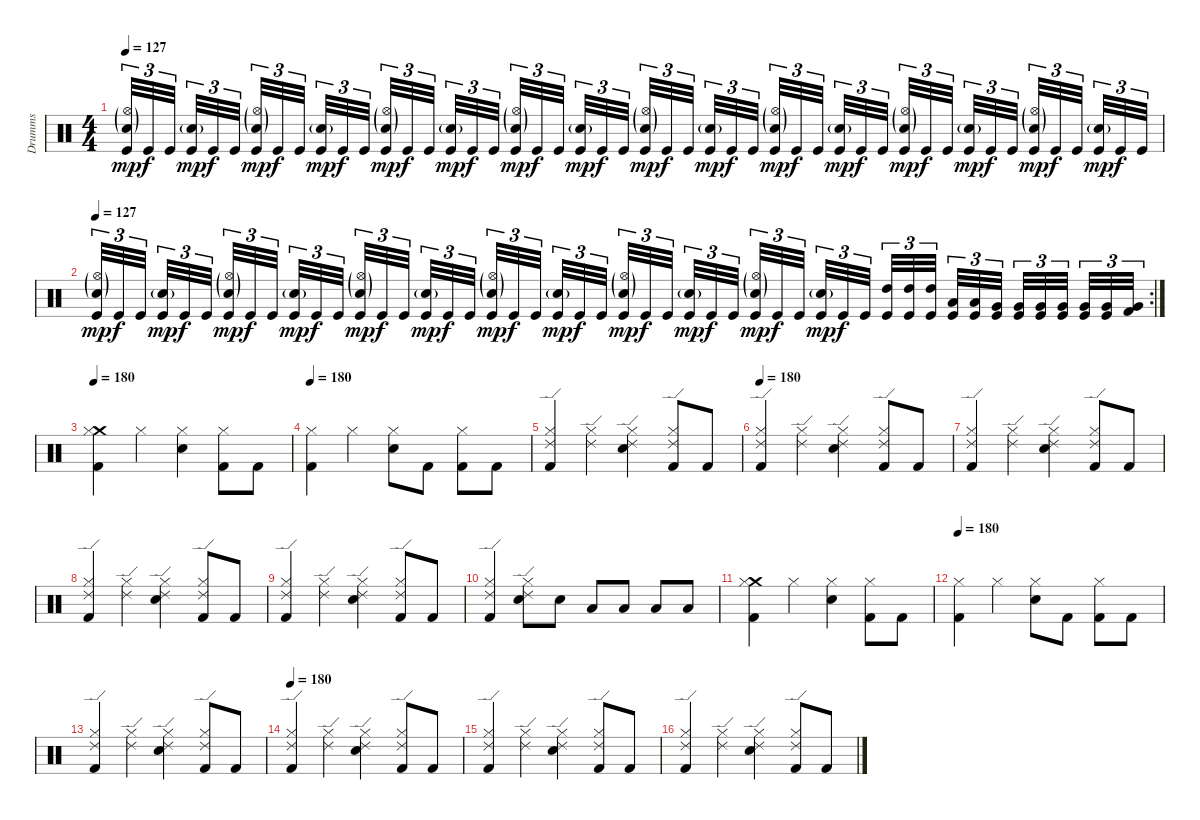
\track ("Drumms" "Drumms") {instrument percussion}
\staff {score}
\articulation defaults
\ts (4 4)
\tempo 127
\clef neutral
\ks c
("Kick (hit)" "Hi-Hat (open)"{g} "Snare (hit) 2"{g}).32{tu (3 2) dy mp} "Kick (hit)".32{tu (3 2) dy f} "Kick (hit)".32{tu (3 2)} ("Kick (hit)" "Snare (hit) 2"{g}).32{tu (3 2) dy mp} "Kick (hit)".32{tu (3 2) dy f} "Kick (hit)".32{tu (3 2)} ("Kick (hit)" "Hi-Hat (open)"{g} "Snare (hit) 2"{g}).32{tu (3 2) dy mp} "Kick (hit)".32{tu (3 2) dy f} "Kick (hit)".32{tu (3 2)} ("Kick (hit)" "Snare (hit) 2"{g}).32{tu (3 2) dy mp} "Kick (hit)".32{tu (3 2) dy f} "Kick (hit)".32{tu (3 2)} ("Kick (hit)" "Snare (hit) 2"{g} "Hi-Hat (open)"{g}).32{tu (3 2) dy mp} "Kick (hit)".32{tu (3 2) dy f} "Kick (hit)".32{tu (3 2)} ("Kick (hit)" "Snare (hit) 2"{g}).32{tu (3 2) dy mp} "Kick (hit)".32{tu (3 2) dy f} "Kick (hit)".32{tu (3 2)} ("Kick (hit)" "Hi-Hat (open)"{g} "Snare (hit) 2"{g}).32{tu (3 2) dy mp} "Kick (hit)".32{tu (3 2) dy f} "Kick (hit)".32{tu (3 2)} ("Kick (hit)" "Snare (hit) 2"{g}).32{tu (3 2) dy mp} "Kick (hit)".32{tu (3 2) dy f} "Kick (hit)".32{tu (3 2)} ("Kick (hit)" "Hi-Hat (open)"{g} "Snare (hit) 2"{g}).32{tu (3 2) dy mp} "Kick (hit)".32{tu (3 2) dy f} "Kick (hit)".32{tu (3 2)} ("Kick (hit)" "Snare (hit) 2"{g}).32{tu (3 2) dy mp} "Kick (hit)".32{tu (3 2) dy f} "Kick (hit)".32{tu (3 2)} ("Kick (hit)" "Hi-Hat (open)"{g} "Snare (hit) 2"{g}).32{tu (3 2) dy mp} "Kick (hit)".32{tu (3 2) dy f} "Kick (hit)".32{tu (3 2)} ("Kick (hit)" "Snare (hit) 2"{g}).32{tu (3 2) dy mp} "Kick (hit)".32{tu (3 2) dy f} "Kick (hit)".32{tu (3 2)} ("Kick (hit)" "Hi-Hat (open)"{g} "Snare (hit) 2"{g}).32{tu (3 2) dy mp} "Kick (hit)".32{tu (3 2) dy f} "Kick (hit)".32{tu (3 2)} ("Kick (hit)" "Snare (hit) 2"{g}).32{tu (3 2) dy mp} "Kick (hit)".32{tu (3 2) dy f} "Kick (hit)".32{tu (3 2)} ("Kick (hit)" "Hi-Hat (open)"{g} "Snare (hit) 2"{g}).32{tu (3 2) dy mp} "Kick (hit)".32{tu (3 2) dy f} "Kick (hit)".32{tu (3 2)} ("Kick (hit)" "Snare (hit) 2"{g}).32{tu (3 2) dy mp} "Kick (hit)".32{tu (3 2) dy f} "Kick (hit)".32{tu (3 2)} |
\rc 2
\tempo 127
("Kick (hit)" "Hi-Hat (open)"{g} "Snare (hit) 2"{g}).32{tu (3 2) dy mp} "Kick (hit)".32{tu (3 2) dy f} "Kick (hit)".32{tu (3 2)} ("Kick (hit)" "Snare (hit) 2"{g}).32{tu (3 2) dy mp} "Kick (hit)".32{tu (3 2) dy f} "Kick (hit)".32{tu (3 2)} ("Kick (hit)" "Hi-Hat (open)"{g} "Snare (hit) 2"{g}).32{tu (3 2) dy mp} "Kick (hit)".32{tu (3 2) dy f} "Kick (hit)".32{tu (3 2)} ("Kick (hit)" "Snare (hit) 2"{g}).32{tu (3 2) dy mp} "Kick (hit)".32{tu (3 2) dy f} "Kick (hit)".32{tu (3 2)} ("Kick (hit)" "Snare (hit) 2"{g} "Hi-Hat (open)"{g}).32{tu (3 2) dy mp} "Kick (hit)".32{tu (3 2) dy f} "Kick (hit)".32{tu (3 2)} ("Kick (hit)" "Snare (hit) 2"{g}).32{tu (3 2) dy mp} "Kick (hit)".32{tu (3 2) dy f} "Kick (hit)".32{tu (3 2)} ("Kick (hit)" "Hi-Hat (open)"{g} "Snare (hit) 2"{g}).32{tu (3 2) dy mp} "Kick (hit)".32{tu (3 2) dy f} "Kick (hit)".32{tu (3 2)} ("Kick (hit)" "Snare (hit) 2"{g}).32{tu (3 2) dy mp} "Kick (hit)".32{tu (3 2) dy f} "Kick (hit)".32{tu (3 2)} ("Kick (hit)" "Hi-Hat (open)"{g} "Snare (hit) 2"{g}).32{tu (3 2) dy mp} "Kick (hit)".32{tu (3 2) dy f} "Kick (hit)".32{tu (3 2)} ("Kick (hit)" "Snare (hit) 2"{g}).32{tu (3 2) dy mp} "Kick (hit)".32{tu (3 2) dy f} "Kick (hit)".32{tu (3 2)} ("Kick (hit)" "Hi-Hat (open)"{g} "Snare (hit) 2"{g}).32{tu (3 2) dy mp} "Kick (hit)".32{tu (3 2) dy f} "Kick (hit)".32{tu (3 2)} ("Kick (hit)" "Snare (hit) 2"{g}).32{tu (3 2) dy mp} "Kick (hit)".32{tu (3 2) dy f} "Kick (hit)".32{tu (3 2)} ("Kick (hit)" "High Tom (hit)").32{tu (3 2)} ("Kick (hit)" "High Tom (hit)").32{tu (3 2)} ("Kick (hit)" "High Tom (hit)").32{tu (3 2)} ("Kick (hit)" "Low Tom (hit)").32{tu (3 2)} ("Kick (hit)" "Low Tom (hit)").32{tu (3 2)} ("Kick (hit)" "Very Low Tom (hit)").32{tu (3 2)} ("Kick (hit)" "Very Low Tom (hit)").32{tu (3 2)} ("Kick (hit)" "Very Low Tom (hit)").32{tu (3 2)} ("Kick (hit)" "Very Low Tom (hit)").32{tu (3 2)} ("Kick (hit)" "Very Low Tom (hit)").32{tu (3 2)} ("Kick (hit)" "Very Low Tom (hit)").32{tu (3 2)} ("Kick (hit) 2" "Very Low Tom (hit)").32{tu (3 2)} |
\tempo 180
("Kick (hit) 2" "Crash medium (hit)" "Hi-Hat (closed)").4 "Hi-Hat (closed)".4 ("Snare (hit) 2" "Hi-Hat (closed)").4 ("Kick (hit) 2" "Hi-Hat (closed)").8 "Kick (hit) 2".8 |
\tempo 180
("Kick (hit) 2" "Hi-Hat (closed)").4 "Hi-Hat (closed)".4 ("Snare (hit) 2" "Hi-Hat (closed)").8 "Kick (hit) 2".8 ("Kick (hit) 2" "Hi-Hat (closed)").8 "Kick (hit) 2".8 |
("Kick (hit) 2" "Ride (edge) 2" "Hi-Hat (closed)").4 ("Ride (edge) 2" "Hi-Hat (closed)").4 ("Snare (hit) 2" "Ride (edge) 2" "Hi-Hat (closed)").4 ("Kick (hit) 2" "Ride (edge) 2" "Hi-Hat (closed)").8 "Kick (hit) 2".8 |
\tempo 180
("Kick (hit) 2" "Ride (edge) 2" "Hi-Hat (closed)").4 ("Ride (edge) 2" "Hi-Hat (closed)").4 ("Snare (hit) 2" "Ride (edge) 2" "Hi-Hat (closed)").4 ("Kick (hit) 2" "Ride (edge) 2" "Hi-Hat (closed)").8 "Kick (hit) 2".8 |
("Kick (hit) 2" "Ride (edge) 2" "Hi-Hat (closed)").4 ("Ride (edge) 2" "Hi-Hat (closed)").4 ("Snare (hit) 2" "Ride (edge) 2" "Hi-Hat (closed)").4 ("Kick (hit) 2" "Ride (edge) 2" "Hi-Hat (closed)").8 "Kick (hit) 2".8 |
("Kick (hit) 2" "Ride (edge) 2" "Hi-Hat (closed)").4 ("Ride (edge) 2" "Hi-Hat (closed)").4 ("Snare (hit) 2" "Ride (edge) 2" "Hi-Hat (closed)").4 ("Kick (hit) 2" "Ride (edge) 2" "Hi-Hat (closed)").8 "Kick (hit) 2".8 |
("Kick (hit) 2" "Ride (edge) 2" "Hi-Hat (closed)").4 ("Ride (edge) 2" "Hi-Hat (closed)").4 ("Snare (hit) 2" "Ride (edge) 2" "Hi-Hat (closed)").4 ("Kick (hit) 2" "Ride (edge) 2" "Hi-Hat (closed)").8 "Kick (hit) 2".8 |
("Kick (hit) 2" "Ride (edge) 2" "Hi-Hat (closed)").4 ("Snare (hit) 2" "Ride (edge) 2" "Hi-Hat (closed)").8 "Snare (hit) 2".8 "Low Tom (hit)".8 "Low Tom (hit)".8 "Low Floor Tom (hit)".8 "Low Floor Tom (hit)".8 |
("Kick (hit) 2" "Crash medium (hit)" "Hi-Hat (closed)").4 "Hi-Hat (closed)".4 ("Snare (hit) 2" "Hi-Hat (closed)").4 ("Kick (hit) 2" "Hi-Hat (closed)").8 "Kick (hit) 2".8 |
\tempo 180
("Kick (hit) 2" "Hi-Hat (closed)").4 "Hi-Hat (closed)".4 ("Snare (hit) 2" "Hi-Hat (closed)").8 "Kick (hit) 2".8 ("Kick (hit) 2" "Hi-Hat (closed)").8 "Kick (hit) 2".8 |
("Kick (hit) 2" "Ride (edge) 2" "Hi-Hat (closed)").4 ("Ride (edge) 2" "Hi-Hat (closed)").4 ("Snare (hit) 2" "Ride (edge) 2" "Hi-Hat (closed)").4 ("Kick (hit) 2" "Ride (edge) 2" "Hi-Hat (closed)").8 "Kick (hit) 2".8 |
\tempo 180
("Kick (hit) 2" "Ride (edge) 2" "Hi-Hat (closed)").4 ("Ride (edge) 2" "Hi-Hat (closed)").4 ("Snare (hit) 2" "Ride (edge) 2" "Hi-Hat (closed)").4 ("Kick (hit) 2" "Ride (edge) 2" "Hi-Hat (closed)").8 "Kick (hit) 2".8 |
("Kick (hit) 2" "Ride (edge) 2" "Hi-Hat (closed)").4 ("Ride (edge) 2" "Hi-Hat (closed)").4 ("Snare (hit) 2" "Ride (edge) 2" "Hi-Hat (closed)").4 ("Kick (hit) 2" "Ride (edge) 2" "Hi-Hat (closed)").8 "Kick (hit) 2".8 |
("Kick (hit) 2" "Ride (edge) 2" "Hi-Hat (closed)").4 ("Ride (edge) 2" "Hi-Hat (closed)").4 ("Snare (hit) 2" "Ride (edge) 2" "Hi-Hat (closed)").4 ("Kick (hit) 2" "Ride (edge) 2" "Hi-Hat (closed)").8 "Kick (hit) 2".8
